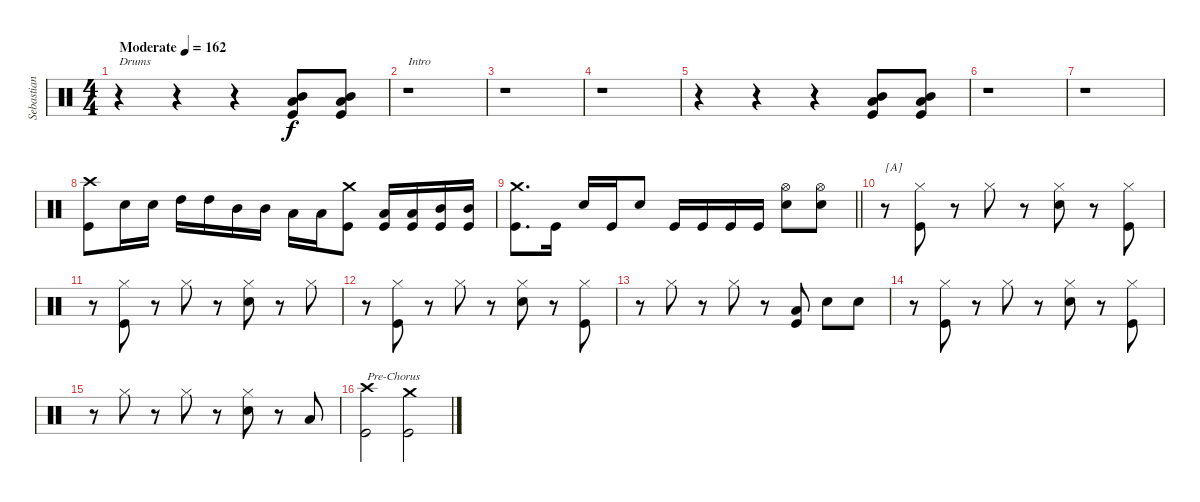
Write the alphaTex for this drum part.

\track ("Sebastian Lanser" "Sebastian ") {instrument percussion}
\staff {score}
\articulation defaults
\ts (4 4)
\tempo (162 "Moderate")
\clef neutral
\ks c
r.4{txt "Drums" dy f} r.4 r.4 ("Low Tom (hit)" "Mid Tom (hit)" "Kick (hit)").8 ("Low Tom (hit)" "Mid Tom (hit)" "Kick (hit)").8 |
r.1{txt "Intro"} |
r.1 |
r.1 |
r.4 r.4 r.4 ("Low Tom (hit)" "Mid Tom (hit)" "Kick (hit)").8 ("Low Tom (hit)" "Mid Tom (hit)" "Kick (hit)").8 |
r.1 |
r.1 |
("Crash high (hit)" "Kick (hit)").8 "Snare (hit) 2".16 "Snare (hit) 2".16 "High Tom (hit)".16 "High Tom (hit)".16 "Mid Tom (hit)".16 "Mid Tom (hit)".16 "Low Tom (hit)".16 "Low Tom (hit)".16 ("Crash medium (hit)" "Kick (hit)").8 ("Low Tom (hit)" "Kick (hit)").16 ("Low Tom (hit)" "Kick (hit)").16 ("Mid Tom (hit)" "Kick (hit)").16 ("Mid Tom (hit)" "Kick (hit)").16 |
\barLineRight lightlight
("Crash medium (hit)" "Kick (hit)").8{d} "Kick (hit)".16 "Snare (hit) 2".16 "Kick (hit)".16 "Snare (hit) 2".8 "Kick (hit)".16 "Kick (hit)".16 "Kick (hit)".16 "Kick (hit)".16 ("Hi-Hat (open)" "Snare (hit) 2").8 ("Hi-Hat (open)" "Snare (hit) 2").8 |
r.8{txt "[A]"} ("Hi-Hat (closed)" "Kick (hit)").8 r.8 "Hi-Hat (closed)".8 r.8 ("Hi-Hat (closed)" "Snare (hit) 2").8 r.8 ("Hi-Hat (closed)" "Kick (hit)").8 |
r.8 ("Hi-Hat (closed)" "Kick (hit)").8 r.8 "Hi-Hat (closed)".8 r.8 ("Hi-Hat (closed)" "Snare (hit) 2").8 r.8 "Hi-Hat (closed)".8 |
r.8 ("Hi-Hat (closed)" "Kick (hit)").8 r.8 "Hi-Hat (closed)".8 r.8 ("Hi-Hat (closed)" "Snare (hit) 2").8 r.8 ("Hi-Hat (closed)" "Kick (hit)").8 |
r.8 "Hi-Hat (closed)".8 r.8 "Hi-Hat (closed)".8 r.8 ("Low Tom (hit)" "Kick (hit)").8 "Snare (hit) 2".8 "Snare (hit) 2".8 |
r.8 ("Hi-Hat (closed)" "Kick (hit)").8 r.8 "Hi-Hat (closed)".8 r.8 ("Hi-Hat (closed)" "Snare (hit) 2").8 r.8 ("Hi-Hat (closed)" "Kick (hit)").8 |
r.8 "Hi-Hat (closed)".8 r.8 "Hi-Hat (closed)".8 r.8 ("Hi-Hat (closed)" "Snare (hit) 2").8 r.8 "Low Tom (hit)".8 |
("Crash high (hit)" "Kick (hit)").2{txt "Pre-Chorus"} ("Crash medium (hit)" "Kick (hit)").2
